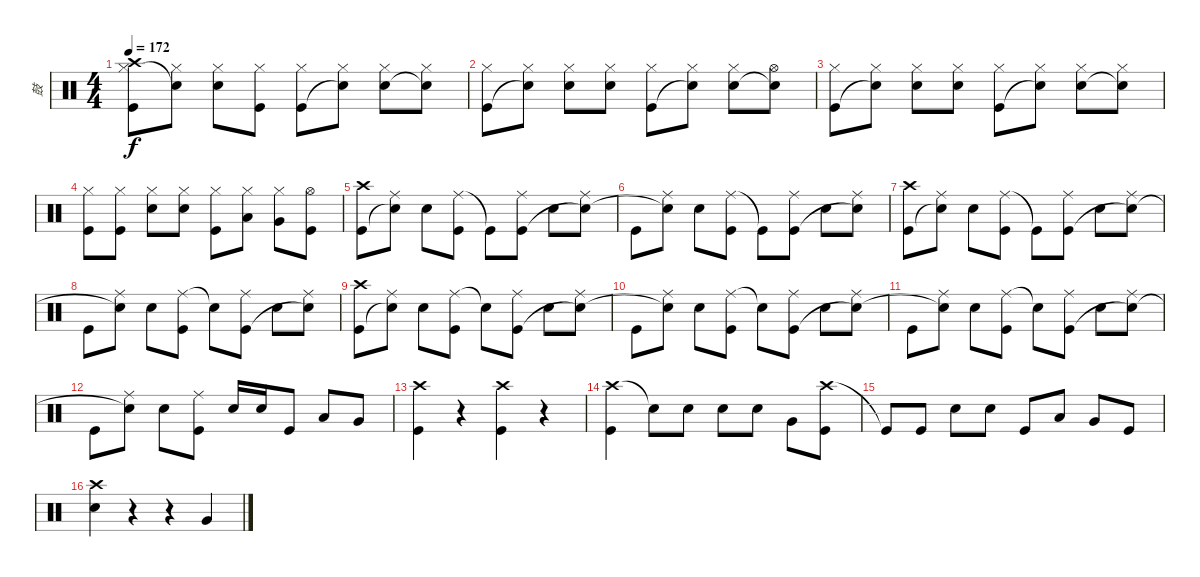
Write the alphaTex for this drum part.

\track ("鼓" "鼓") {instrument percussion}
\staff {score}
\articulation defaults
\ts (4 4)
\tempo 172
\clef neutral
\ks c
("Crash high (hit)" "Hi-Hat (closed)" "Kick (hit)").8{dy f} ("Hi-Hat (closed)" "Snare (hit)"{t}).8 ("Hi-Hat (closed)" "Snare (hit) 2").8 ("Hi-Hat (closed)" "Kick (hit)").8 ("Hi-Hat (closed)" "Kick (hit)").8 ("Hi-Hat (closed)" "Snare (hit)"{t}).8 ("Hi-Hat (closed)" "Snare (hit) 2").8 ("Hi-Hat (closed)" "Snare (hit)"{t}).8 |
("Hi-Hat (closed)" "Kick (hit)").8 ("Hi-Hat (closed)" "Snare (hit)"{t}).8 ("Hi-Hat (closed)" "Snare (hit) 2").8 ("Hi-Hat (closed)" "Snare (hit) 2").8 ("Hi-Hat (closed)" "Kick (hit)").8 ("Hi-Hat (closed)" "Snare (hit)"{t}).8 ("Hi-Hat (closed)" "Snare (hit) 2").8 ("Hi-Hat (open)" "Snare (hit)"{t}).8 |
("Hi-Hat (closed)" "Kick (hit)").8 ("Hi-Hat (closed)" "Snare (hit)"{t}).8 ("Hi-Hat (closed)" "Snare (hit) 2").8 ("Hi-Hat (closed)" "Snare (hit) 2").8 ("Hi-Hat (closed)" "Kick (hit)").8 ("Hi-Hat (closed)" "Snare (hit)"{t}).8 ("Hi-Hat (closed)" "Snare (hit) 2").8 ("Hi-Hat (closed)" "Snare (hit)"{t}).8 |
("Hi-Hat (closed)" "Kick (hit)").8 ("Hi-Hat (closed)" "Kick (hit)").8 ("Hi-Hat (closed)" "Snare (hit) 2").8 ("Hi-Hat (closed)" "Snare (hit) 2").8 ("Hi-Hat (closed)" "Kick (hit)").8 ("Hi-Hat (closed)" "Low Tom (hit)").8 ("Hi-Hat (closed)" "Very Low Tom (hit)").8 ("Hi-Hat (open)" "Kick (hit)").8 |
("Crash high (hit)" "Kick (hit)").8 ("Ride (middle)" "Snare (hit) 2"{t}).8 "Snare (hit) 2".8 ("Ride (middle)" "Kick (hit)").8 "Kick (hit)"{t}.8 ("Ride (middle)" "Kick (hit)").8 "Snare (hit) 2".8 ("Ride (middle)" "Snare (hit)"{t}).8 |
"Kick (hit)".8 ("Ride (middle)" "Snare (hit) 2"{t}).8 "Snare (hit) 2".8 ("Ride (middle)" "Kick (hit)").8 "Kick (hit)"{t}.8 ("Ride (middle)" "Kick (hit)").8 "Snare (hit) 2".8 ("Ride (middle)" "Snare (hit)"{t}).8 |
("Crash high (hit)" "Kick (hit)").8 ("Ride (middle)" "Snare (hit) 2"{t}).8 "Snare (hit) 2".8 ("Ride (middle)" "Kick (hit)").8 "Kick (hit)"{t}.8 ("Ride (middle)" "Kick (hit)").8 "Snare (hit) 2".8 ("Ride (middle)" "Snare (hit)"{t}).8 |
"Kick (hit)".8 ("Ride (middle)" "Snare (hit) 2"{t}).8 "Snare (hit) 2".8 ("Ride (middle)" "Kick (hit)").8 "Snare (hit) 2"{t}.8 ("Ride (middle)" "Kick (hit)").8 "Snare (hit) 2".8 ("Ride (middle)" "Snare (hit)"{t}).8 |
("Crash high (hit)" "Kick (hit)").8 ("Ride (middle)" "Snare (hit) 2"{t}).8 "Snare (hit) 2".8 ("Ride (middle)" "Kick (hit)").8 "Snare (hit) 2"{t}.8 ("Ride (middle)" "Kick (hit)").8 "Snare (hit) 2".8 ("Ride (middle)" "Snare (hit)"{t}).8 |
"Kick (hit)".8 ("Ride (middle)" "Snare (hit) 2"{t}).8 "Snare (hit) 2".8 ("Ride (middle)" "Kick (hit)").8 "Snare (hit) 2"{t}.8 ("Ride (middle)" "Kick (hit)").8 "Snare (hit) 2".8 ("Ride (middle)" "Snare (hit)"{t}).8 |
"Kick (hit)".8 ("Ride (middle)" "Snare (hit) 2"{t}).8 "Snare (hit) 2".8 ("Ride (middle)" "Kick (hit)").8 "Snare (hit) 2"{t}.8 ("Ride (middle)" "Kick (hit)").8 "Snare (hit) 2".8 ("Ride (middle)" "Snare (hit)"{t}).8 |
"Kick (hit)".8 ("Ride (middle)" "Snare (hit) 2"{t}).8 "Snare (hit) 2".8 ("Ride (middle)" "Kick (hit)").8 "Snare (hit) 2".16 "Snare (hit) 2".16 "Kick (hit)".8 "Low Tom (hit)".8 "Very Low Tom (hit)".8 |
("Crash high (hit)" "Kick (hit)").4 r.4 ("Crash high (hit)" "Kick (hit)").4 r.4 |
("Crash high (hit)" "Kick (hit)").4 "Snare (hit)"{t}.8 "Snare (hit) 2".8 "Snare (hit) 2".8 "Snare (hit) 2".8 "Very Low Tom (hit)".8 ("Crash high (hit)" "Kick (hit)").8 |
"Kick (hit)"{t}.8 "Kick (hit)".8 "Snare (hit) 2".8 "Snare (hit) 2".8 "Kick (hit)".8 "Low Tom (hit)".8 "Very Low Tom (hit)".8 "Kick (hit)".8 |
("Crash high (hit)" "Snare (hit) 2").4 r.4 r.4 "Very Low Tom (hit)".4
